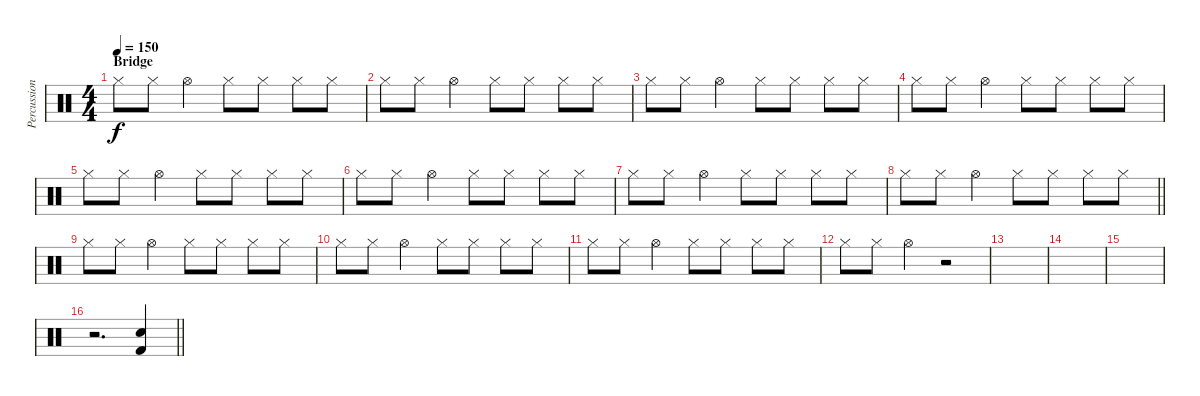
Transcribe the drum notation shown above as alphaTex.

\track ("Percussion" "Percussion") {instrument percussion}
\staff {score}
\articulation defaults
\ts (4 4)
\section ("" "Bridge")
\tempo 150
\clef neutral
\ks c "Hi-Hat (closed)".8{dy f} "Hi-Hat (closed)".8 "Hi-Hat (open)".4 "Hi-Hat (closed)".8 "Hi-Hat (closed)".8 "Hi-Hat (closed)".8 "Hi-Hat (closed)".8
|
"Hi-Hat (closed)".8 "Hi-Hat (closed)".8 "Hi-Hat (open)".4 "Hi-Hat (closed)".8 "Hi-Hat (closed)".8 "Hi-Hat (closed)".8 "Hi-Hat (closed)".8 |
"Hi-Hat (closed)".8 "Hi-Hat (closed)".8 "Hi-Hat (open)".4 "Hi-Hat (closed)".8 "Hi-Hat (closed)".8 "Hi-Hat (closed)".8 "Hi-Hat (closed)".8 |
"Hi-Hat (closed)".8 "Hi-Hat (closed)".8 "Hi-Hat (open)".4 "Hi-Hat (closed)".8 "Hi-Hat (closed)".8 "Hi-Hat (closed)".8 "Hi-Hat (closed)".8 |
"Hi-Hat (closed)".8 "Hi-Hat (closed)".8 "Hi-Hat (open)".4 "Hi-Hat (closed)".8 "Hi-Hat (closed)".8 "Hi-Hat (closed)".8 "Hi-Hat (closed)".8 |
"Hi-Hat (closed)".8 "Hi-Hat (closed)".8 "Hi-Hat (open)".4 "Hi-Hat (closed)".8 "Hi-Hat (closed)".8 "Hi-Hat (closed)".8 "Hi-Hat (closed)".8 |
"Hi-Hat (closed)".8 "Hi-Hat (closed)".8 "Hi-Hat (open)".4 "Hi-Hat (closed)".8 "Hi-Hat (closed)".8 "Hi-Hat (closed)".8 "Hi-Hat (closed)".8 |
\barLineRight lightlight "Hi-Hat (closed)".8 "Hi-Hat (closed)".8 "Hi-Hat (open)".4 "Hi-Hat (closed)".8 "Hi-Hat (closed)".8 "Hi-Hat (closed)".8 "Hi-Hat (closed)".8
|
"Hi-Hat (closed)".8 "Hi-Hat (closed)".8 "Hi-Hat (open)".4 "Hi-Hat (closed)".8 "Hi-Hat (closed)".8 "Hi-Hat (closed)".8 "Hi-Hat (closed)".8 |
"Hi-Hat (closed)".8 "Hi-Hat (closed)".8 "Hi-Hat (open)".4 "Hi-Hat (closed)".8 "Hi-Hat (closed)".8 "Hi-Hat (closed)".8 "Hi-Hat (closed)".8 |
"Hi-Hat (closed)".8 "Hi-Hat (closed)".8 "Hi-Hat (open)".4 "Hi-Hat (closed)".8 "Hi-Hat (closed)".8 "Hi-Hat (closed)".8 "Hi-Hat (closed)".8 |
"Hi-Hat (closed)".8 "Hi-Hat (closed)".8 "Hi-Hat (open)".4 r.2 |
|
|
|
\barLineRight lightlight
r.2{d} ("Kick (hit) 2" "Electric Snare (hit)").4
